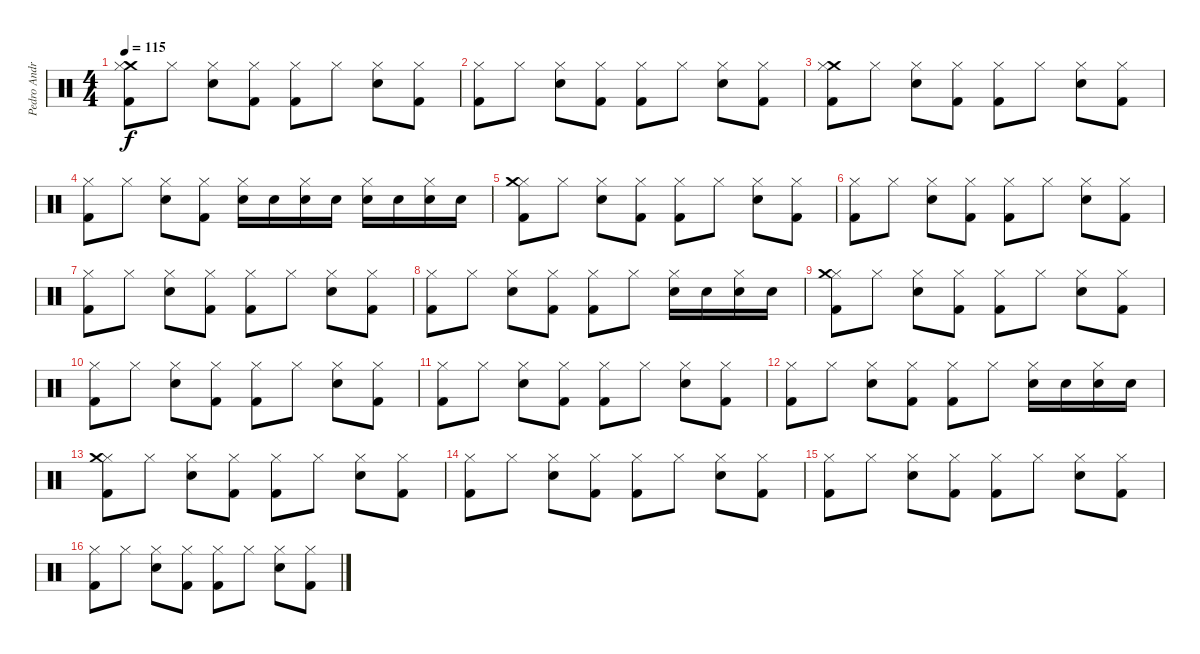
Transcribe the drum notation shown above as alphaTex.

\track ("Pedro Andreu" "Pedro Andr") {instrument percussion}
\staff {score}
\articulation defaults
\ts (4 4)
\tempo 115
\clef neutral
\ks c
("Crash medium (hit)" "Hi-Hat (closed)" "Kick (hit) 2").8{dy f} "Hi-Hat (closed)".8 ("Hi-Hat (closed)" "Snare (hit) 2").8 ("Hi-Hat (closed)" "Kick (hit) 2").8 ("Hi-Hat (closed)" "Kick (hit) 2").8 "Hi-Hat (closed)".8 ("Hi-Hat (closed)" "Snare (hit) 2").8 ("Hi-Hat (closed)" "Kick (hit) 2").8 |
("Hi-Hat (closed)" "Kick (hit) 2").8 "Hi-Hat (closed)".8 ("Hi-Hat (closed)" "Snare (hit) 2").8 ("Hi-Hat (closed)" "Kick (hit) 2").8 ("Hi-Hat (closed)" "Kick (hit) 2").8 "Hi-Hat (closed)".8 ("Hi-Hat (closed)" "Snare (hit) 2").8 ("Hi-Hat (closed)" "Kick (hit) 2").8 |
("Crash medium (hit)" "Hi-Hat (closed)" "Kick (hit) 2").8 "Hi-Hat (closed)".8 ("Hi-Hat (closed)" "Snare (hit) 2").8 ("Hi-Hat (closed)" "Kick (hit) 2").8 ("Hi-Hat (closed)" "Kick (hit) 2").8 "Hi-Hat (closed)".8 ("Hi-Hat (closed)" "Snare (hit) 2").8 ("Hi-Hat (closed)" "Kick (hit) 2").8 |
("Hi-Hat (closed)" "Kick (hit) 2").8 "Hi-Hat (closed)".8 ("Hi-Hat (closed)" "Snare (hit) 2").8 ("Hi-Hat (closed)" "Kick (hit) 2").8 ("Snare (hit) 2" "Hi-Hat (closed)").16 "Snare (hit) 2".16 ("Snare (hit) 2" "Hi-Hat (closed)").16 "Snare (hit) 2".16 ("Snare (hit) 2" "Hi-Hat (closed)").16 "Snare (hit) 2".16 ("Snare (hit) 2" "Hi-Hat (closed)").16 "Snare (hit) 2".16 |
("Hi-Hat (closed)" "Crash medium (hit)" "Kick (hit) 2").8 "Hi-Hat (closed)".8 ("Hi-Hat (closed)" "Snare (hit) 2").8 ("Hi-Hat (closed)" "Kick (hit) 2").8 ("Hi-Hat (closed)" "Kick (hit) 2").8 "Hi-Hat (closed)".8 ("Hi-Hat (closed)" "Snare (hit) 2").8 ("Hi-Hat (closed)" "Kick (hit) 2").8 |
("Hi-Hat (closed)" "Kick (hit) 2").8 "Hi-Hat (closed)".8 ("Hi-Hat (closed)" "Snare (hit) 2").8 ("Hi-Hat (closed)" "Kick (hit) 2").8 ("Hi-Hat (closed)" "Kick (hit) 2").8 "Hi-Hat (closed)".8 ("Hi-Hat (closed)" "Snare (hit) 2").8 ("Hi-Hat (closed)" "Kick (hit) 2").8 |
("Hi-Hat (closed)" "Kick (hit) 2").8 "Hi-Hat (closed)".8 ("Hi-Hat (closed)" "Snare (hit) 2").8 ("Hi-Hat (closed)" "Kick (hit) 2").8 ("Hi-Hat (closed)" "Kick (hit) 2").8 "Hi-Hat (closed)".8 ("Hi-Hat (closed)" "Snare (hit) 2").8 ("Hi-Hat (closed)" "Kick (hit) 2").8 |
("Hi-Hat (closed)" "Kick (hit) 2").8 "Hi-Hat (closed)".8 ("Hi-Hat (closed)" "Snare (hit) 2").8 ("Hi-Hat (closed)" "Kick (hit) 2").8 ("Hi-Hat (closed)" "Kick (hit) 2").8 "Hi-Hat (closed)".8 ("Snare (hit) 2" "Hi-Hat (closed)").16 "Snare (hit) 2".16 ("Snare (hit) 2" "Hi-Hat (closed)").16 "Snare (hit) 2".16 |
("Hi-Hat (closed)" "Crash medium (hit)" "Kick (hit) 2").8 "Hi-Hat (closed)".8 ("Hi-Hat (closed)" "Snare (hit) 2").8 ("Hi-Hat (closed)" "Kick (hit) 2").8 ("Hi-Hat (closed)" "Kick (hit) 2").8 "Hi-Hat (closed)".8 ("Hi-Hat (closed)" "Snare (hit) 2").8 ("Hi-Hat (closed)" "Kick (hit) 2").8 |
("Hi-Hat (closed)" "Kick (hit) 2").8 "Hi-Hat (closed)".8 ("Hi-Hat (closed)" "Snare (hit) 2").8 ("Hi-Hat (closed)" "Kick (hit) 2").8 ("Hi-Hat (closed)" "Kick (hit) 2").8 "Hi-Hat (closed)".8 ("Hi-Hat (closed)" "Snare (hit) 2").8 ("Hi-Hat (closed)" "Kick (hit) 2").8 |
("Hi-Hat (closed)" "Kick (hit) 2").8 "Hi-Hat (closed)".8 ("Hi-Hat (closed)" "Snare (hit) 2").8 ("Hi-Hat (closed)" "Kick (hit) 2").8 ("Hi-Hat (closed)" "Kick (hit) 2").8 "Hi-Hat (closed)".8 ("Hi-Hat (closed)" "Snare (hit) 2").8 ("Hi-Hat (closed)" "Kick (hit) 2").8 |
("Hi-Hat (closed)" "Kick (hit) 2").8 "Hi-Hat (closed)".8 ("Hi-Hat (closed)" "Snare (hit) 2").8 ("Hi-Hat (closed)" "Kick (hit) 2").8 ("Hi-Hat (closed)" "Kick (hit) 2").8 "Hi-Hat (closed)".8 ("Snare (hit) 2" "Hi-Hat (closed)").16 "Snare (hit) 2".16 ("Snare (hit) 2" "Hi-Hat (closed)").16 "Snare (hit) 2".16 |
("Hi-Hat (closed)" "Crash medium (hit)" "Kick (hit) 2").8 "Hi-Hat (closed)".8 ("Hi-Hat (closed)" "Snare (hit) 2").8 ("Hi-Hat (closed)" "Kick (hit) 2").8 ("Hi-Hat (closed)" "Kick (hit) 2").8 "Hi-Hat (closed)".8 ("Hi-Hat (closed)" "Snare (hit) 2").8 ("Hi-Hat (closed)" "Kick (hit) 2").8 |
("Hi-Hat (closed)" "Kick (hit) 2").8 "Hi-Hat (closed)".8 ("Hi-Hat (closed)" "Snare (hit) 2").8 ("Hi-Hat (closed)" "Kick (hit) 2").8 ("Hi-Hat (closed)" "Kick (hit) 2").8 "Hi-Hat (closed)".8 ("Hi-Hat (closed)" "Snare (hit) 2").8 ("Hi-Hat (closed)" "Kick (hit) 2").8 |
("Hi-Hat (closed)" "Kick (hit) 2").8 "Hi-Hat (closed)".8 ("Hi-Hat (closed)" "Snare (hit) 2").8 ("Hi-Hat (closed)" "Kick (hit) 2").8 ("Hi-Hat (closed)" "Kick (hit) 2").8 "Hi-Hat (closed)".8 ("Hi-Hat (closed)" "Snare (hit) 2").8 ("Hi-Hat (closed)" "Kick (hit) 2").8 |
("Hi-Hat (closed)" "Kick (hit) 2").8 "Hi-Hat (closed)".8 ("Hi-Hat (closed)" "Snare (hit) 2").8 ("Hi-Hat (closed)" "Kick (hit) 2").8 ("Hi-Hat (closed)" "Kick (hit) 2").8 "Hi-Hat (closed)".8 ("Hi-Hat (closed)" "Snare (hit) 2").8 ("Hi-Hat (closed)" "Kick (hit) 2").8
